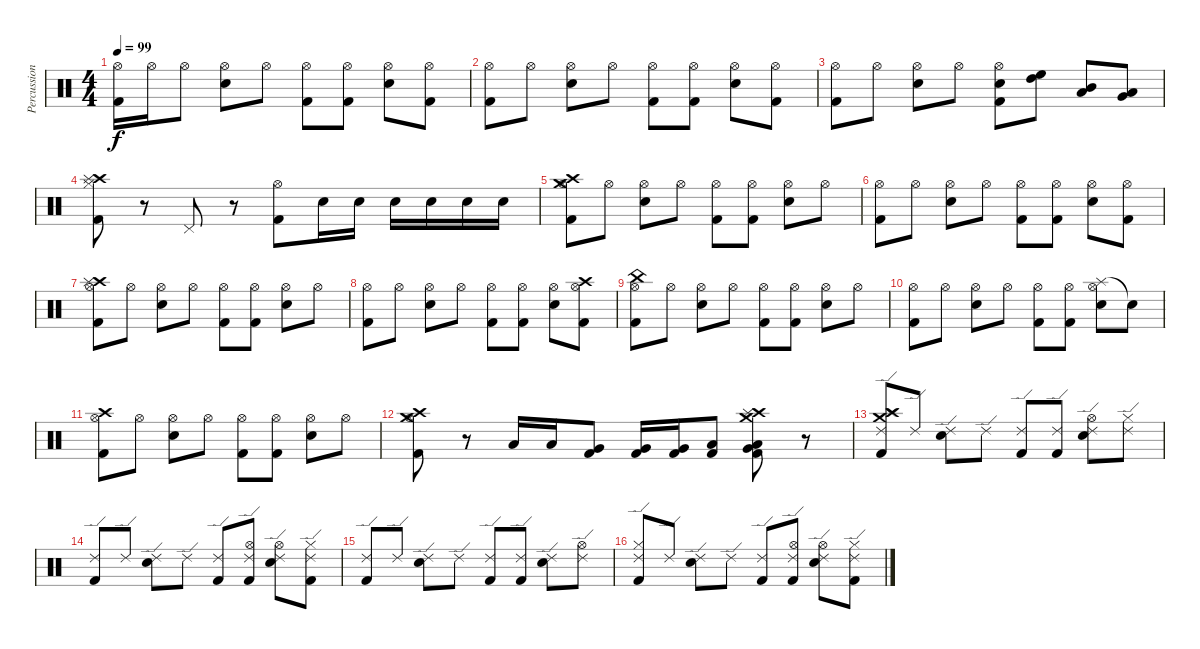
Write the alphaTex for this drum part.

\track ("Percussion" "Percussion") {instrument percussion}
\staff {score}
\articulation defaults
\ts (4 4)
\tempo 99
\clef neutral
\ks c
("Kick (hit) 2" "Hi-Hat (open)").16{dy f} "Hi-Hat (open)".16 "Hi-Hat (open)".8 ("Snare (hit) 2" "Hi-Hat (open)").8 "Hi-Hat (open)".8 ("Kick (hit) 2" "Hi-Hat (open)").8 ("Kick (hit) 2" "Hi-Hat (open)").8 ("Snare (hit) 2" "Hi-Hat (open)").8 ("Kick (hit) 2" "Hi-Hat (open)").8 |
("Kick (hit) 2" "Hi-Hat (open)").8 "Hi-Hat (open)".8 ("Snare (hit) 2" "Hi-Hat (open)").8 "Hi-Hat (open)".8 ("Kick (hit) 2" "Hi-Hat (open)").8 ("Kick (hit) 2" "Hi-Hat (open)").8 ("Snare (hit) 2" "Hi-Hat (open)").8 ("Kick (hit) 2" "Hi-Hat (open)").8 |
("Kick (hit) 2" "Hi-Hat (open)").8 "Hi-Hat (open)".8 ("Snare (hit) 2" "Hi-Hat (open)").8 "Hi-Hat (open)".8 ("Snare (hit) 2" "Kick (hit) 2" "Hi-Hat (open)").8 ("High Tom (hit)" "High Floor Tom (hit)").8 ("Mid Tom (hit)" "Low Tom (hit)").8 ("Low Floor Tom (hit)" "Very Low Tom (hit)").8 |
("Crash high (hit)" "Splash (hit)" "Kick (hit) 2" "Hi-Hat (closed)").8 r.8 "Pedal Hi-Hat (hit)".8 r.8 ("Hi-Hat (open)" "Kick (hit) 2").8 "Snare (hit) 2".16 "Snare (hit) 2".16 "Snare (hit) 2".16 "Snare (hit) 2".16 "Snare (hit) 2".16 "Snare (hit) 2".16 |
("Crash high (hit)" "Crash medium (hit)" "Kick (hit) 2" "Hi-Hat (open)").8 "Hi-Hat (open)".8 ("Snare (hit) 2" "Hi-Hat (open)").8 "Hi-Hat (open)".8 ("Kick (hit) 2" "Hi-Hat (open)").8 ("Kick (hit) 2" "Hi-Hat (open)").8 ("Snare (hit) 2" "Hi-Hat (open)").8 "Hi-Hat (open)".8 |
("Kick (hit) 2" "Hi-Hat (open)").8 "Hi-Hat (open)".8 ("Snare (hit) 2" "Hi-Hat (open)").8 "Hi-Hat (open)".8 ("Kick (hit) 2" "Hi-Hat (open)").8 ("Kick (hit) 2" "Hi-Hat (open)").8 ("Snare (hit) 2" "Hi-Hat (open)").8 ("Kick (hit) 2" "Hi-Hat (open)").8 |
("Crash high (hit)" "Splash (hit)" "Kick (hit) 2" "Hi-Hat (open)").8 "Hi-Hat (open)".8 ("Snare (hit) 2" "Hi-Hat (open)").8 "Hi-Hat (open)".8 ("Kick (hit) 2" "Hi-Hat (open)").8 ("Kick (hit) 2" "Hi-Hat (open)").8 ("Snare (hit) 2" "Hi-Hat (open)").8 "Hi-Hat (open)".8 |
("Kick (hit) 2" "Hi-Hat (open)").8 "Hi-Hat (open)".8 ("Snare (hit) 2" "Hi-Hat (open)").8 "Hi-Hat (open)".8 ("Kick (hit) 2" "Hi-Hat (open)").8 ("Kick (hit) 2" "Hi-Hat (open)").8 ("Snare (hit) 2" "Hi-Hat (open)").8 ("Crash high (hit)" "Kick (hit) 2" "Hi-Hat (open)").8 |
("China (hit)" "Kick (hit) 2" "Hi-Hat (open)").8 "Hi-Hat (open)".8 ("Snare (hit) 2" "Hi-Hat (open)").8 "Hi-Hat (open)".8 ("Kick (hit) 2" "Hi-Hat (open)").8 ("Kick (hit) 2" "Hi-Hat (open)").8 ("Snare (hit) 2" "Hi-Hat (open)").8 "Hi-Hat (open)".8 |
("Kick (hit) 2" "Hi-Hat (open)").8 "Hi-Hat (open)".8 ("Snare (hit) 2" "Hi-Hat (open)").8 "Hi-Hat (open)".8 ("Kick (hit) 2" "Hi-Hat (open)").8 ("Kick (hit) 2" "Hi-Hat (open)").8 ("Splash (hit)" "Snare (hit) 2" "Hi-Hat (open)").8 "Snare (hit)"{t}.8 |
("Crash high (hit)" "Kick (hit) 2" "Hi-Hat (open)").8 "Hi-Hat (open)".8 ("Snare (hit) 2" "Hi-Hat (open)").8 "Hi-Hat (open)".8 ("Kick (hit) 2" "Hi-Hat (open)").8 ("Kick (hit) 2" "Hi-Hat (open)").8 ("Snare (hit) 2" "Hi-Hat (open)").8 "Hi-Hat (open)".8 |
("Crash high (hit)" "Crash medium (hit)" "Kick (hit) 2" "Hi-Hat (open)").8 r.8 "Low Tom (hit)".16 "Low Tom (hit)".16 ("Very Low Tom (hit)" "Kick (hit) 2").8 ("Very Low Tom (hit)" "Kick (hit) 2").16 ("Very Low Tom (hit)" "Kick (hit) 2").16 ("Low Floor Tom (hit)" "Kick (hit) 2").8 ("Crash high (hit)" "Splash (hit)" "Crash medium (hit)" "Low Floor Tom (hit)" "Very Low Tom (hit)" "Kick (hit) 2").8 r.8 |
("Crash high (hit)" "Splash (hit)" "Crash medium (hit)" "Kick (hit) 2" "Ride (edge) 2").8 "Ride (edge) 2".8 ("Snare (hit) 2" "Ride (edge) 2").8 "Ride (edge) 2".8 ("Kick (hit) 2" "Ride (edge) 2").8 ("Kick (hit) 2" "Ride (edge) 2").8 ("Hi-Hat (open)" "Snare (hit) 2" "Ride (edge) 2").8 ("Hi-Hat (closed)" "Ride (edge) 2").8 |
("Kick (hit) 2" "Ride (edge) 2").8 "Ride (edge) 2".8 ("Snare (hit) 2" "Ride (edge) 2").8 "Ride (edge) 2".8 ("Kick (hit) 2" "Ride (edge) 2").8 ("Hi-Hat (open)" "Kick (hit) 2" "Ride (edge) 2").8 ("Hi-Hat (open)" "Snare (hit) 2" "Ride (edge) 2").8 ("Hi-Hat (closed)" "Kick (hit) 2" "Ride (edge) 2").8 |
("Kick (hit) 2" "Ride (edge) 2").8 "Ride (edge) 2".8 ("Snare (hit) 2" "Ride (edge) 2").8 "Ride (edge) 2".8 ("Kick (hit) 2" "Ride (edge) 2").8 ("Kick (hit) 2" "Ride (edge) 2").8 ("Snare (hit) 2" "Ride (edge) 2").8 ("Hi-Hat (open)" "Ride (edge) 2").8 |
("Hi-Hat (closed)" "Kick (hit) 2" "Ride (edge) 2").8 "Ride (edge) 2".8 ("Snare (hit) 2" "Ride (edge) 2").8 "Ride (edge) 2".8 ("Kick (hit) 2" "Ride (edge) 2").8 ("Hi-Hat (open)" "Kick (hit) 2" "Ride (edge) 2").8 ("Hi-Hat (open)" "Snare (hit) 2" "Ride (edge) 2").8 ("Hi-Hat (closed)" "Kick (hit) 2" "Ride (edge) 2").8
